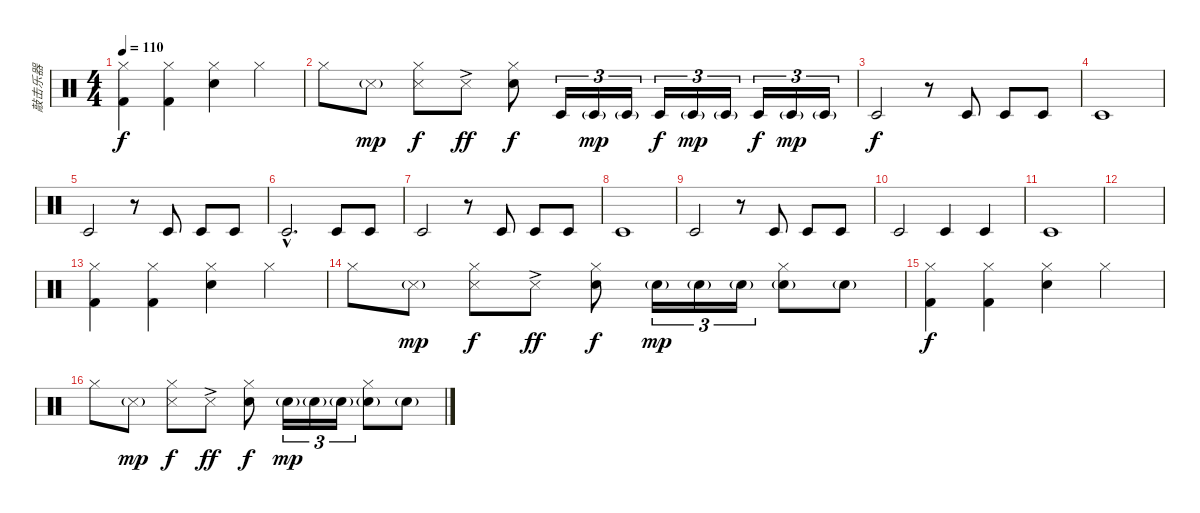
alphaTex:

\track ("敲击乐器" "敲击乐器") {instrument percussion}
\staff {score}
\articulation defaults
\ts (4 4)
\tempo 110
\clef neutral
\ks c
("Kick (hit) 2" "Hi-Hat (closed)").4{dy f} ("Kick (hit) 2" "Hi-Hat (closed)").4 ("Snare (hit) 2" "Hi-Hat (closed)").4 "Hi-Hat (closed)".4 |
"Hi-Hat (closed)".8 "Metronome (hit)"{g}.8{dy mp} ("Metronome (hit)" "Hi-Hat (closed)").8{dy f} "Metronome (hit)"{ac}.8{dy ff} ("Snare (hit) 2" "Hi-Hat (closed)").8{dy f} "Timbale low (hit)".16{tu (3 2)} "Timbale low (hit)"{g}.16{tu (3 2) dy mp} "Timbale low (hit)"{g}.16{tu (3 2)} "Timbale low (hit)".16{tu (3 2) dy f} "Timbale low (hit)"{g}.16{tu (3 2) dy mp} "Timbale low (hit)"{g}.16{tu (3 2)} "Timbale low (hit)".16{tu (3 2) dy f} "Timbale low (hit)"{g}.16{tu (3 2) dy mp} "Timbale low (hit)"{g}.16{tu (3 2)} |
"Timbale low (hit)".2{dy f} r.8 "Timbale low (hit)".8 "Timbale low (hit)".8 "Timbale low (hit)".8 |
"Timbale low (hit)".1 |
"Timbale low (hit)".2 r.8 "Timbale low (hit)".8 "Timbale low (hit)".8 "Timbale low (hit)".8 |
"Timbale low (hit)"{hac}.2{d} "Timbale low (hit)".8 "Timbale low (hit)".8 |
"Timbale low (hit)".2 r.8 "Timbale low (hit)".8 "Timbale low (hit)".8 "Timbale low (hit)".8 |
"Timbale low (hit)".1 |
"Timbale low (hit)".2 r.8 "Timbale low (hit)".8 "Timbale low (hit)".8 "Timbale low (hit)".8 |
"Timbale low (hit)".2 "Timbale low (hit)".4 "Timbale low (hit)".4 |
"Timbale low (hit)".1 |
|
("Kick (hit) 2" "Hi-Hat (closed)").4 ("Kick (hit) 2" "Hi-Hat (closed)").4 ("Snare (hit) 2" "Hi-Hat (closed)").4 "Hi-Hat (closed)".4 |
"Hi-Hat (closed)".8 "Metronome (hit)"{g}.8{dy mp} ("Metronome (hit)" "Hi-Hat (closed)").8{dy f} "Metronome (hit)"{ac}.8{dy ff} ("Snare (hit) 2" "Hi-Hat (closed)").8{dy f} "Electric Snare (hit)"{g}.16{tu (3 2) dy mp} "Electric Snare (hit)"{g}.16{tu (3 2)} "Electric Snare (hit)"{g}.16{tu (3 2)} ("Electric Snare (hit)"{g} "Hi-Hat (closed)").8 "Electric Snare (hit)"{g}.8 |
("Kick (hit) 2" "Hi-Hat (closed)").4{dy f} ("Kick (hit) 2" "Hi-Hat (closed)").4 ("Snare (hit) 2" "Hi-Hat (closed)").4 "Hi-Hat (closed)".4 |
"Hi-Hat (closed)".8 "Metronome (hit)"{g}.8{dy mp} ("Metronome (hit)" "Hi-Hat (closed)").8{dy f} "Metronome (hit)"{ac}.8{dy ff} ("Snare (hit) 2" "Hi-Hat (closed)").8{dy f} "Electric Snare (hit)"{g}.16{tu (3 2) dy mp} "Electric Snare (hit)"{g}.16{tu (3 2)} "Electric Snare (hit)"{g}.16{tu (3 2)} ("Electric Snare (hit)"{g} "Hi-Hat (closed)").8 "Electric Snare (hit)"{g}.8
